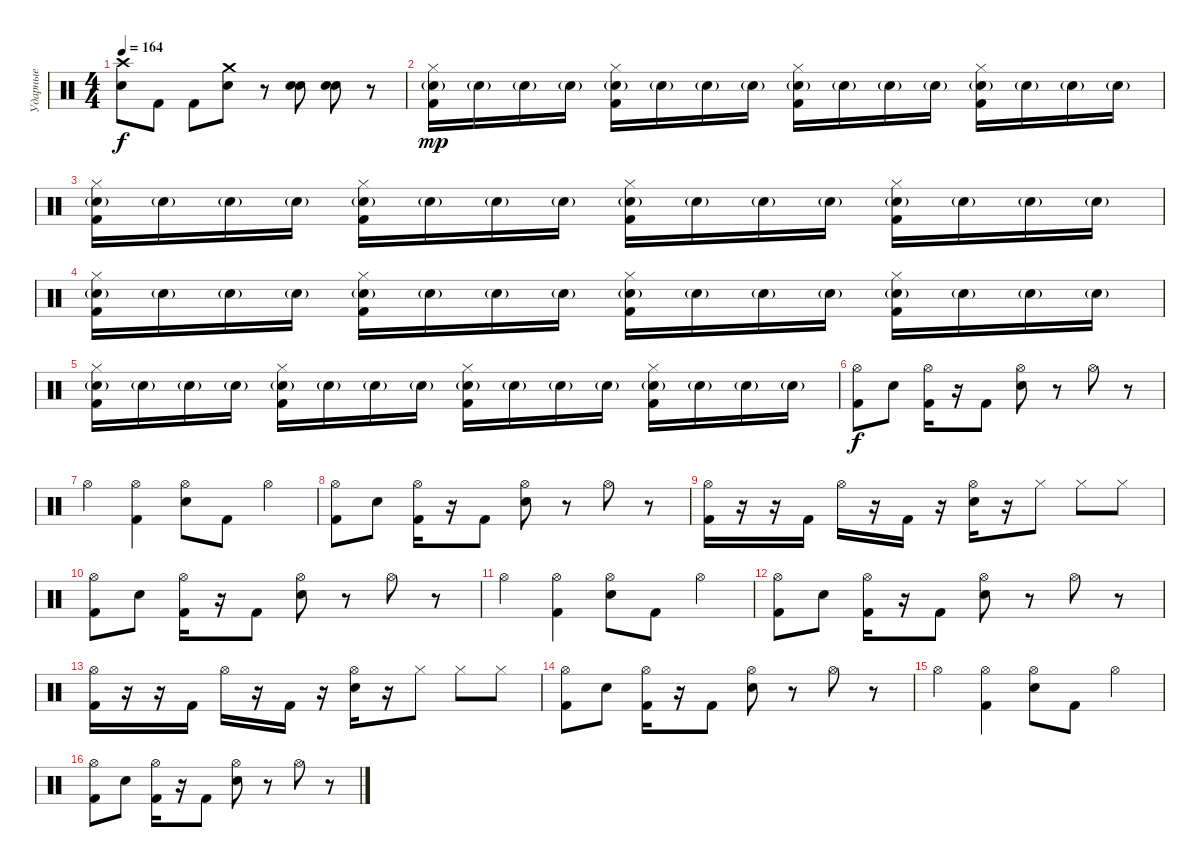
\track ("Ударные" "Ударные") {instrument percussion}
\staff {score}
\articulation defaults
\ts (4 4)
\tempo 164
\clef neutral
\ks c
("Crash high (hit)" "Snare (hit) 2").8{dy f} "Kick (hit) 2".8 "Kick (hit) 2".8 ("Crash medium (hit)" "Snare (hit) 2").8 r.8 ("Snare (hit) 2" "Snare (hit) 2").8 ("Snare (hit) 2" "Snare (hit) 2").8 r.8 |
("Hi-Hat (closed)" "Snare (hit) 2"{g} "Kick (hit) 2").16{dy mp} "Snare (hit) 2"{g}.16 "Snare (hit) 2"{g}.16 "Snare (hit) 2"{g}.16 ("Hi-Hat (closed)" "Snare (hit) 2"{g} "Kick (hit) 2").16 "Snare (hit) 2"{g}.16 "Snare (hit) 2"{g}.16 "Snare (hit) 2"{g}.16 ("Hi-Hat (closed)" "Snare (hit) 2"{g} "Kick (hit) 2").16 "Snare (hit) 2"{g}.16 "Snare (hit) 2"{g}.16 "Snare (hit) 2"{g}.16 ("Hi-Hat (closed)" "Snare (hit) 2"{g} "Kick (hit) 2").16 "Snare (hit) 2"{g}.16 "Snare (hit) 2"{g}.16 "Snare (hit) 2"{g}.16 |
("Hi-Hat (closed)" "Snare (hit) 2"{g} "Kick (hit) 2").16 "Snare (hit) 2"{g}.16 "Snare (hit) 2"{g}.16 "Snare (hit) 2"{g}.16 ("Hi-Hat (closed)" "Snare (hit) 2"{g} "Kick (hit) 2").16 "Snare (hit) 2"{g}.16 "Snare (hit) 2"{g}.16 "Snare (hit) 2"{g}.16 ("Hi-Hat (closed)" "Snare (hit) 2"{g} "Kick (hit) 2").16 "Snare (hit) 2"{g}.16 "Snare (hit) 2"{g}.16 "Snare (hit) 2"{g}.16 ("Hi-Hat (closed)" "Snare (hit) 2"{g} "Kick (hit) 2").16 "Snare (hit) 2"{g}.16 "Snare (hit) 2"{g}.16 "Snare (hit) 2"{g}.16 |
("Hi-Hat (closed)" "Snare (hit) 2"{g} "Kick (hit) 2").16 "Snare (hit) 2"{g}.16 "Snare (hit) 2"{g}.16 "Snare (hit) 2"{g}.16 ("Hi-Hat (closed)" "Snare (hit) 2"{g} "Kick (hit) 2").16 "Snare (hit) 2"{g}.16 "Snare (hit) 2"{g}.16 "Snare (hit) 2"{g}.16 ("Hi-Hat (closed)" "Snare (hit) 2"{g} "Kick (hit) 2").16 "Snare (hit) 2"{g}.16 "Snare (hit) 2"{g}.16 "Snare (hit) 2"{g}.16 ("Hi-Hat (closed)" "Snare (hit) 2"{g} "Kick (hit) 2").16 "Snare (hit) 2"{g}.16 "Snare (hit) 2"{g}.16 "Snare (hit) 2"{g}.16 |
("Hi-Hat (closed)" "Snare (hit) 2"{g} "Kick (hit) 2").16 "Snare (hit) 2"{g}.16 "Snare (hit) 2"{g}.16 "Snare (hit) 2"{g}.16 ("Hi-Hat (closed)" "Snare (hit) 2"{g} "Kick (hit) 2").16 "Snare (hit) 2"{g}.16 "Snare (hit) 2"{g}.16 "Snare (hit) 2"{g}.16 ("Hi-Hat (closed)" "Snare (hit) 2"{g} "Kick (hit) 2").16 "Snare (hit) 2"{g}.16 "Snare (hit) 2"{g}.16 "Snare (hit) 2"{g}.16 ("Hi-Hat (closed)" "Snare (hit) 2"{g} "Kick (hit) 2").16 "Snare (hit) 2"{g}.16 "Snare (hit) 2"{g}.16 "Snare (hit) 2"{g}.16 |
("Hi-Hat (open)" "Kick (hit) 2").8{dy f} "Snare (hit) 2".8 ("Hi-Hat (open)" "Kick (hit) 2").16 r.16 "Kick (hit) 2".8 ("Hi-Hat (open)" "Snare (hit) 2").8 r.8 "Hi-Hat (open)".8 r.8 |
"Hi-Hat (open)".4 ("Hi-Hat (open)" "Kick (hit) 2").4 ("Hi-Hat (open)" "Snare (hit) 2").8 "Kick (hit) 2".8 "Hi-Hat (open)".4 |
("Hi-Hat (open)" "Kick (hit) 2").8 "Snare (hit) 2".8 ("Hi-Hat (open)" "Kick (hit) 2").16 r.16 "Kick (hit) 2".8 ("Hi-Hat (open)" "Snare (hit) 2").8 r.8 "Hi-Hat (open)".8 r.8 |
("Hi-Hat (open)" "Kick (hit) 2").16 r.16 r.16 "Kick (hit) 2".16 "Hi-Hat (open)".16 r.16 "Kick (hit) 2".16 r.16 ("Hi-Hat (open)" "Snare (hit) 2").16 r.16 "Hi-Hat (closed)".8 "Hi-Hat (closed)".8 "Hi-Hat (closed)".8 |
("Hi-Hat (open)" "Kick (hit) 2").8 "Snare (hit) 2".8 ("Hi-Hat (open)" "Kick (hit) 2").16 r.16 "Kick (hit) 2".8 ("Hi-Hat (open)" "Snare (hit) 2").8 r.8 "Hi-Hat (open)".8 r.8 |
"Hi-Hat (open)".4 ("Hi-Hat (open)" "Kick (hit) 2").4 ("Hi-Hat (open)" "Snare (hit) 2").8 "Kick (hit) 2".8 "Hi-Hat (open)".4 |
("Hi-Hat (open)" "Kick (hit) 2").8 "Snare (hit) 2".8 ("Hi-Hat (open)" "Kick (hit) 2").16 r.16 "Kick (hit) 2".8 ("Hi-Hat (open)" "Snare (hit) 2").8 r.8 "Hi-Hat (open)".8 r.8 |
("Hi-Hat (open)" "Kick (hit) 2").16 r.16 r.16 "Kick (hit) 2".16 "Hi-Hat (open)".16 r.16 "Kick (hit) 2".16 r.16 ("Hi-Hat (open)" "Snare (hit) 2").16 r.16 "Hi-Hat (closed)".8 "Hi-Hat (closed)".8 "Hi-Hat (closed)".8 |
("Hi-Hat (open)" "Kick (hit) 2").8 "Snare (hit) 2".8 ("Hi-Hat (open)" "Kick (hit) 2").16 r.16 "Kick (hit) 2".8 ("Hi-Hat (open)" "Snare (hit) 2").8 r.8 "Hi-Hat (open)".8 r.8 |
"Hi-Hat (open)".4 ("Hi-Hat (open)" "Kick (hit) 2").4 ("Hi-Hat (open)" "Snare (hit) 2").8 "Kick (hit) 2".8 "Hi-Hat (open)".4 |
("Hi-Hat (open)" "Kick (hit) 2").8 "Snare (hit) 2".8 ("Hi-Hat (open)" "Kick (hit) 2").16 r.16 "Kick (hit) 2".8 ("Hi-Hat (open)" "Snare (hit) 2").8 r.8 "Hi-Hat (open)".8 r.8
